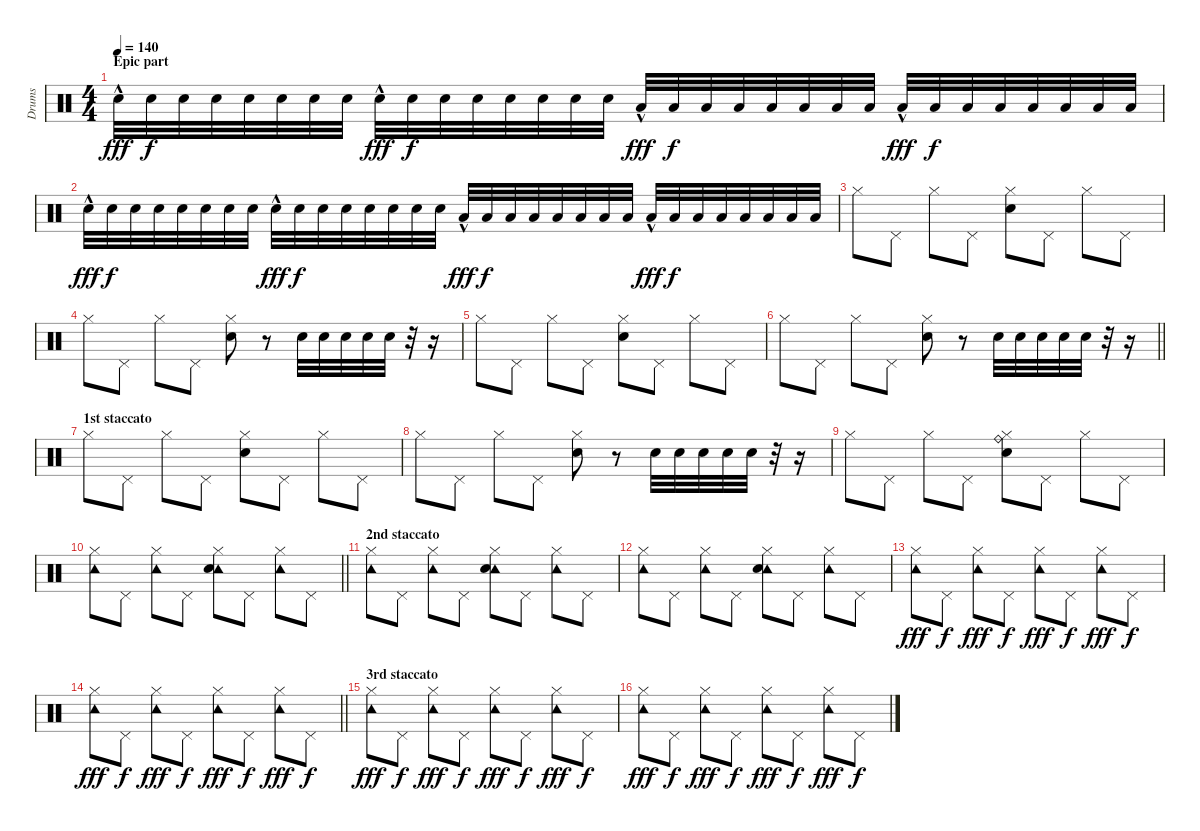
\track ("Drums" "Drums") {instrument percussion}
\staff {score}
\articulation defaults
\ts (4 4)
\section ("" "Epic part")
\tempo 140
\clef neutral
\ks c "Electric Snare (hit)"{hac}.32{dy fff} "Electric Snare (hit)".32{dy f} "Electric Snare (hit)".32 "Electric Snare (hit)".32 "Electric Snare (hit)".32 "Electric Snare (hit)".32 "Electric Snare (hit)".32 "Electric Snare (hit)".32 "Electric Snare (hit)"{hac}.32{dy fff} "Electric Snare (hit)".32{dy f} "Electric Snare (hit)".32 "Electric Snare (hit)".32 "Electric Snare (hit)".32 "Electric Snare (hit)".32 "Electric Snare (hit)".32 "Electric Snare (hit)".32 "Low Tom (hit)"{hac}.32{dy fff} "Low Tom (hit)".32{dy f} "Low Tom (hit)".32 "Low Tom (hit)".32 "Low Tom (hit)".32 "Low Tom (hit)".32 "Low Tom (hit)".32 "Low Tom (hit)".32 "Low Tom (hit)"{hac}.32{dy fff} "Low Tom (hit)".32{dy f} "Low Tom (hit)".32 "Low Tom (hit)".32 "Low Tom (hit)".32 "Low Tom (hit)".32 "Low Tom (hit)".32 "Low Tom (hit)".32
|
"Electric Snare (hit)"{hac}.32{dy fff} "Electric Snare (hit)".32{dy f} "Electric Snare (hit)".32 "Electric Snare (hit)".32 "Electric Snare (hit)".32 "Electric Snare (hit)".32 "Electric Snare (hit)".32 "Electric Snare (hit)".32 "Electric Snare (hit)"{hac}.32{dy fff} "Electric Snare (hit)".32{dy f} "Electric Snare (hit)".32 "Electric Snare (hit)".32 "Electric Snare (hit)".32 "Electric Snare (hit)".32 "Electric Snare (hit)".32 "Electric Snare (hit)".32 "Low Tom (hit)"{hac}.32{dy fff} "Low Tom (hit)".32{dy f} "Low Tom (hit)".32 "Low Tom (hit)".32 "Low Tom (hit)".32 "Low Tom (hit)".32 "Low Tom (hit)".32 "Low Tom (hit)".32 "Low Tom (hit)"{hac}.32{dy fff} "Low Tom (hit)".32{dy f} "Low Tom (hit)".32 "Low Tom (hit)".32 "Low Tom (hit)".32 "Low Tom (hit)".32 "Low Tom (hit)".32 "Low Tom (hit)".32 |
"Hi-Hat (closed)".8 "Pedal Hi-Hat (hit)".8 "Hi-Hat (closed)".8 "Pedal Hi-Hat (hit)".8 ("Hi-Hat (closed)" "Snare (hit) 2").8 "Pedal Hi-Hat (hit)".8 "Hi-Hat (closed)".8 "Pedal Hi-Hat (hit)".8 |
"Hi-Hat (closed)".8 "Pedal Hi-Hat (hit)".8 "Hi-Hat (closed)".8 "Pedal Hi-Hat (hit)".8 ("Hi-Hat (closed)" "Snare (hit) 2").8 r.8 "Electric Snare (hit)".32 "Electric Snare (hit)".32 "Electric Snare (hit)".32 "Electric Snare (hit)".32 "Electric Snare (hit)".32 r.32 r.16 |
"Hi-Hat (closed)".8 "Pedal Hi-Hat (hit)".8 "Hi-Hat (closed)".8 "Pedal Hi-Hat (hit)".8 ("Hi-Hat (closed)" "Snare (hit) 2").8 "Pedal Hi-Hat (hit)".8 "Hi-Hat (closed)".8 "Pedal Hi-Hat (hit)".8 |
\barLineRight lightlight "Hi-Hat (closed)".8 "Pedal Hi-Hat (hit)".8 "Hi-Hat (closed)".8 "Pedal Hi-Hat (hit)".8
("Hi-Hat (closed)" "Snare (hit) 2").8 r.8 "Electric Snare (hit)".32 "Electric Snare (hit)".32 "Electric Snare (hit)".32 "Electric Snare (hit)".32 "Electric Snare (hit)".32 r.32 r.16 |
\section ("" "1st staccato")
"Hi-Hat (closed)".8 "Pedal Hi-Hat (hit)".8 "Hi-Hat (closed)".8 "Pedal Hi-Hat (hit)".8 ("Hi-Hat (closed)" "Snare (hit) 2").8 "Pedal Hi-Hat (hit)".8 "Hi-Hat (closed)".8 "Pedal Hi-Hat (hit)".8 |
"Hi-Hat (closed)".8 "Pedal Hi-Hat (hit)".8 "Hi-Hat (closed)".8 "Pedal Hi-Hat (hit)".8 ("Hi-Hat (closed)" "Snare (hit) 2").8 r.8 "Electric Snare (hit)".32 "Electric Snare (hit)".32 "Electric Snare (hit)".32 "Electric Snare (hit)".32 "Electric Snare (hit)".32 r.32 r.16 |
"Hi-Hat (closed)".8 "Pedal Hi-Hat (hit)".8 "Hi-Hat (closed)".8 "Pedal Hi-Hat (hit)".8 ("Ride (bell)" "Hi-Hat (closed)" "Snare (hit) 2").8 "Pedal Hi-Hat (hit)".8 "Hi-Hat (closed)".8 "Pedal Hi-Hat (hit)".8 |
\barLineRight lightlight
("Tambourine (hit)" "Hi-Hat (closed)").8 "Pedal Hi-Hat (hit)".8 ("Tambourine (hit)" "Hi-Hat (closed)").8 "Pedal Hi-Hat (hit)".8 ("Tambourine (hit)" "Hi-Hat (closed)" "Snare (hit) 2").8 "Pedal Hi-Hat (hit)".8 ("Tambourine (hit)" "Hi-Hat (closed)").8 "Pedal Hi-Hat (hit)".8 |
\section ("" "2nd staccato")
("Tambourine (hit)" "Hi-Hat (closed)").8 "Pedal Hi-Hat (hit)".8 ("Tambourine (hit)" "Hi-Hat (closed)").8 "Pedal Hi-Hat (hit)".8 ("Tambourine (hit)" "Hi-Hat (closed)" "Snare (hit) 2").8 "Pedal Hi-Hat (hit)".8 ("Tambourine (hit)" "Hi-Hat (closed)").8 "Pedal Hi-Hat (hit)".8 |
("Tambourine (hit)" "Hi-Hat (closed)").8 "Pedal Hi-Hat (hit)".8 ("Tambourine (hit)" "Hi-Hat (closed)").8 "Pedal Hi-Hat (hit)".8 ("Tambourine (hit)" "Hi-Hat (closed)" "Snare (hit) 2").8 "Pedal Hi-Hat (hit)".8 ("Tambourine (hit)" "Hi-Hat (closed)").8 "Pedal Hi-Hat (hit)".8 |
("Tambourine (hit)" "Hi-Hat (closed)").8{dy fff} "Pedal Hi-Hat (hit)".8{dy f} ("Tambourine (hit)" "Hi-Hat (closed)").8{dy fff} "Pedal Hi-Hat (hit)".8{dy f} ("Tambourine (hit)" "Hi-Hat (closed)").8{dy fff} "Pedal Hi-Hat (hit)".8{dy f} ("Tambourine (hit)" "Hi-Hat (closed)").8{dy fff} "Pedal Hi-Hat (hit)".8{dy f} |
\barLineRight lightlight
("Tambourine (hit)" "Hi-Hat (closed)").8{dy fff} "Pedal Hi-Hat (hit)".8{dy f} ("Tambourine (hit)" "Hi-Hat (closed)").8{dy fff} "Pedal Hi-Hat (hit)".8{dy f} ("Tambourine (hit)" "Hi-Hat (closed)").8{dy fff} "Pedal Hi-Hat (hit)".8{dy f} ("Tambourine (hit)" "Hi-Hat (closed)").8{dy fff} "Pedal Hi-Hat (hit)".8{dy f} |
\section ("" "3rd staccato")
("Tambourine (hit)" "Hi-Hat (closed)").8{dy fff} "Pedal Hi-Hat (hit)".8{dy f} ("Tambourine (hit)" "Hi-Hat (closed)").8{dy fff} "Pedal Hi-Hat (hit)".8{dy f} ("Tambourine (hit)" "Hi-Hat (closed)").8{dy fff} "Pedal Hi-Hat (hit)".8{dy f} ("Tambourine (hit)" "Hi-Hat (closed)").8{dy fff} "Pedal Hi-Hat (hit)".8{dy f} |
("Tambourine (hit)" "Hi-Hat (closed)").8{dy fff} "Pedal Hi-Hat (hit)".8{dy f} ("Tambourine (hit)" "Hi-Hat (closed)").8{dy fff} "Pedal Hi-Hat (hit)".8{dy f} ("Tambourine (hit)" "Hi-Hat (closed)").8{dy fff} "Pedal Hi-Hat (hit)".8{dy f} ("Tambourine (hit)" "Hi-Hat (closed)").8{dy fff} "Pedal Hi-Hat (hit)".8{dy f}
